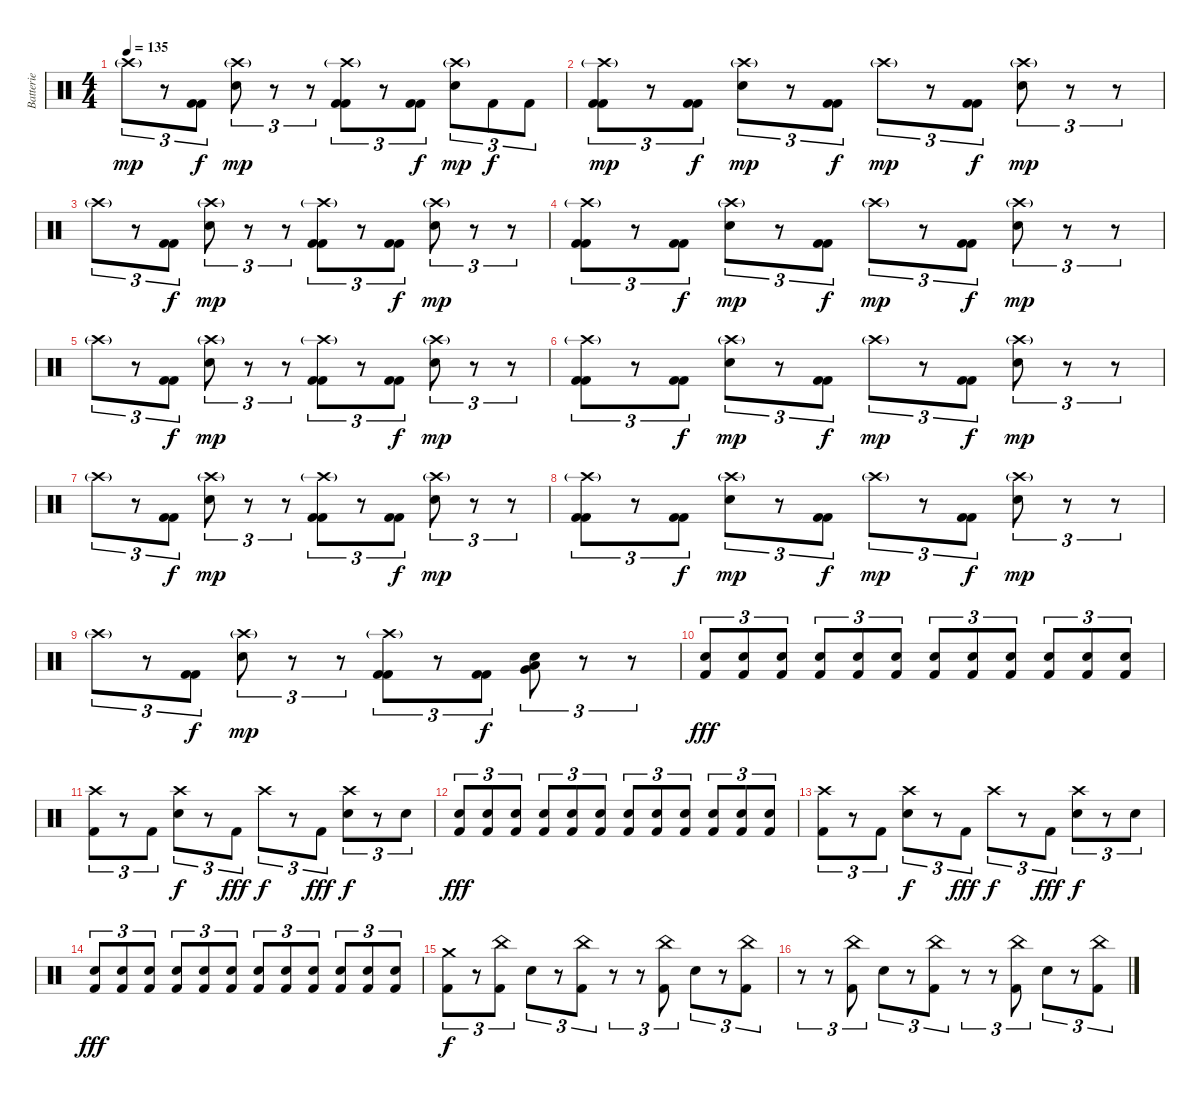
\track ("Batterie" "Batterie") {instrument percussion}
\staff {score}
\articulation defaults
\ts (4 4)
\tempo 135
\clef neutral
\ks c "Crash high (hit)"{g}.8{tu (3 2) dy mp}
r.8{tu (3 2)} ("Kick (hit) 2" "Kick (hit) 2").8{tu (3 2) dy f} ("Crash high (hit)"{g} "Electric Snare (hit)").8{tu (3 2) dy mp} r.8{tu (3 2)} r.8{tu (3 2)} ("Crash high (hit)"{g} "Kick (hit) 2" "Kick (hit) 2").8{tu (3 2)} r.8{tu (3 2)} ("Kick (hit) 2" "Kick (hit) 2").8{tu (3 2) dy f} ("Crash high (hit)"{g} "Electric Snare (hit)").8{tu (3 2) dy mp} "Kick (hit) 2".8{tu (3 2) dy f} "Kick (hit) 2".8{tu (3 2)} |
("Crash high (hit)"{g} "Kick (hit) 2" "Kick (hit) 2").8{tu (3 2) dy mp} r.8{tu (3 2)} ("Kick (hit) 2" "Kick (hit) 2").8{tu (3 2) dy f} ("Crash high (hit)"{g} "Electric Snare (hit)").8{tu (3 2) dy mp} r.8{tu (3 2)} ("Kick (hit) 2" "Kick (hit) 2").8{tu (3 2) dy f} "Crash high (hit)"{g}.8{tu (3 2) dy mp} r.8{tu (3 2)} ("Kick (hit) 2" "Kick (hit) 2").8{tu (3 2) dy f} ("Crash high (hit)"{g} "Electric Snare (hit)").8{tu (3 2) dy mp} r.8{tu (3 2)} r.8{tu (3 2)} |
"Crash high (hit)"{g}.8{tu (3 2)} r.8{tu (3 2)} ("Kick (hit) 2" "Kick (hit) 2").8{tu (3 2) dy f} ("Crash high (hit)"{g} "Electric Snare (hit)").8{tu (3 2) dy mp} r.8{tu (3 2)} r.8{tu (3 2)} ("Crash high (hit)"{g} "Kick (hit) 2" "Kick (hit) 2").8{tu (3 2)} r.8{tu (3 2)} ("Kick (hit) 2" "Kick (hit) 2").8{tu (3 2) dy f} ("Crash high (hit)"{g} "Electric Snare (hit)").8{tu (3 2) dy mp} r.8{tu (3 2)} r.8{tu (3 2)} |
("Crash high (hit)"{g} "Kick (hit) 2" "Kick (hit) 2").8{tu (3 2)} r.8{tu (3 2)} ("Kick (hit) 2" "Kick (hit) 2").8{tu (3 2) dy f} ("Crash high (hit)"{g} "Electric Snare (hit)").8{tu (3 2) dy mp} r.8{tu (3 2)} ("Kick (hit) 2" "Kick (hit) 2").8{tu (3 2) dy f} "Crash high (hit)"{g}.8{tu (3 2) dy mp} r.8{tu (3 2)} ("Kick (hit) 2" "Kick (hit) 2").8{tu (3 2) dy f} ("Crash high (hit)"{g} "Electric Snare (hit)").8{tu (3 2) dy mp} r.8{tu (3 2)} r.8{tu (3 2)} |
"Crash high (hit)"{g}.8{tu (3 2)} r.8{tu (3 2)} ("Kick (hit) 2" "Kick (hit) 2").8{tu (3 2) dy f} ("Crash high (hit)"{g} "Electric Snare (hit)").8{tu (3 2) dy mp} r.8{tu (3 2)} r.8{tu (3 2)} ("Crash high (hit)"{g} "Kick (hit) 2" "Kick (hit) 2").8{tu (3 2)} r.8{tu (3 2)} ("Kick (hit) 2" "Kick (hit) 2").8{tu (3 2) dy f} ("Crash high (hit)"{g} "Electric Snare (hit)").8{tu (3 2) dy mp} r.8{tu (3 2)} r.8{tu (3 2)} |
("Crash high (hit)"{g} "Kick (hit) 2" "Kick (hit) 2").8{tu (3 2)} r.8{tu (3 2)} ("Kick (hit) 2" "Kick (hit) 2").8{tu (3 2) dy f} ("Crash high (hit)"{g} "Electric Snare (hit)").8{tu (3 2) dy mp} r.8{tu (3 2)} ("Kick (hit) 2" "Kick (hit) 2").8{tu (3 2) dy f} "Crash high (hit)"{g}.8{tu (3 2) dy mp} r.8{tu (3 2)} ("Kick (hit) 2" "Kick (hit) 2").8{tu (3 2) dy f} ("Crash high (hit)"{g} "Electric Snare (hit)").8{tu (3 2) dy mp} r.8{tu (3 2)} r.8{tu (3 2)} |
"Crash high (hit)"{g}.8{tu (3 2)} r.8{tu (3 2)} ("Kick (hit) 2" "Kick (hit) 2").8{tu (3 2) dy f} ("Crash high (hit)"{g} "Electric Snare (hit)").8{tu (3 2) dy mp} r.8{tu (3 2)} r.8{tu (3 2)} ("Crash high (hit)"{g} "Kick (hit) 2" "Kick (hit) 2").8{tu (3 2)} r.8{tu (3 2)} ("Kick (hit) 2" "Kick (hit) 2").8{tu (3 2) dy f} ("Crash high (hit)"{g} "Electric Snare (hit)").8{tu (3 2) dy mp} r.8{tu (3 2)} r.8{tu (3 2)} |
("Crash high (hit)"{g} "Kick (hit) 2" "Kick (hit) 2").8{tu (3 2)} r.8{tu (3 2)} ("Kick (hit) 2" "Kick (hit) 2").8{tu (3 2) dy f} ("Crash high (hit)"{g} "Electric Snare (hit)").8{tu (3 2) dy mp} r.8{tu (3 2)} ("Kick (hit) 2" "Kick (hit) 2").8{tu (3 2) dy f} "Crash high (hit)"{g}.8{tu (3 2) dy mp} r.8{tu (3 2)} ("Kick (hit) 2" "Kick (hit) 2").8{tu (3 2) dy f} ("Crash high (hit)"{g} "Electric Snare (hit)").8{tu (3 2) dy mp} r.8{tu (3 2)} r.8{tu (3 2)} |
"Crash high (hit)"{g}.8{tu (3 2)} r.8{tu (3 2)} ("Kick (hit) 2" "Kick (hit) 2").8{tu (3 2) dy f} ("Crash high (hit)"{g} "Electric Snare (hit)").8{tu (3 2) dy mp} r.8{tu (3 2)} r.8{tu (3 2)} ("Crash high (hit)"{g} "Kick (hit) 2" "Kick (hit) 2").8{tu (3 2)} r.8{tu (3 2)} ("Kick (hit) 2" "Kick (hit) 2").8{tu (3 2) dy f} ("Electric Snare (hit)" "Very Low Tom (hit)" "Low Floor Tom (hit)").8{tu (3 2)} r.8{tu (3 2)} r.8{tu (3 2)} |
("Electric Snare (hit)" "Kick (hit) 2").8{tu (3 2) dy fff} ("Electric Snare (hit)" "Kick (hit) 2").8{tu (3 2)} ("Electric Snare (hit)" "Kick (hit) 2").8{tu (3 2)} ("Electric Snare (hit)" "Kick (hit) 2").8{tu (3 2)} ("Electric Snare (hit)" "Kick (hit) 2").8{tu (3 2)} ("Electric Snare (hit)" "Kick (hit) 2").8{tu (3 2)} ("Electric Snare (hit)" "Kick (hit) 2").8{tu (3 2)} ("Electric Snare (hit)" "Kick (hit) 2").8{tu (3 2)} ("Electric Snare (hit)" "Kick (hit) 2").8{tu (3 2)} ("Electric Snare (hit)" "Kick (hit) 2").8{tu (3 2)} ("Electric Snare (hit)" "Kick (hit) 2").8{tu (3 2)} ("Electric Snare (hit)" "Kick (hit) 2").8{tu (3 2)} |
("Crash high (hit)" "Kick (hit) 2").8{tu (3 2)} r.8{tu (3 2)} "Kick (hit) 2".8{tu (3 2)} ("Crash high (hit)" "Electric Snare (hit)").8{tu (3 2) dy f} r.8{tu (3 2)} "Kick (hit) 2".8{tu (3 2) dy fff} "Crash high (hit)".8{tu (3 2) dy f} r.8{tu (3 2)} "Kick (hit) 2".8{tu (3 2) dy fff} ("Crash high (hit)" "Electric Snare (hit)").8{tu (3 2) dy f} r.8{tu (3 2)} "Electric Snare (hit)".8{tu (3 2)} |
("Electric Snare (hit)" "Kick (hit) 2").8{tu (3 2) dy fff} ("Electric Snare (hit)" "Kick (hit) 2").8{tu (3 2)} ("Electric Snare (hit)" "Kick (hit) 2").8{tu (3 2)} ("Electric Snare (hit)" "Kick (hit) 2").8{tu (3 2)} ("Electric Snare (hit)" "Kick (hit) 2").8{tu (3 2)} ("Electric Snare (hit)" "Kick (hit) 2").8{tu (3 2)} ("Electric Snare (hit)" "Kick (hit) 2").8{tu (3 2)} ("Electric Snare (hit)" "Kick (hit) 2").8{tu (3 2)} ("Electric Snare (hit)" "Kick (hit) 2").8{tu (3 2)} ("Electric Snare (hit)" "Kick (hit) 2").8{tu (3 2)} ("Electric Snare (hit)" "Kick (hit) 2").8{tu (3 2)} ("Electric Snare (hit)" "Kick (hit) 2").8{tu (3 2)} |
("Crash high (hit)" "Kick (hit) 2").8{tu (3 2)} r.8{tu (3 2)} "Kick (hit) 2".8{tu (3 2)} ("Crash high (hit)" "Electric Snare (hit)").8{tu (3 2) dy f} r.8{tu (3 2)} "Kick (hit) 2".8{tu (3 2) dy fff} "Crash high (hit)".8{tu (3 2) dy f} r.8{tu (3 2)} "Kick (hit) 2".8{tu (3 2) dy fff} ("Crash high (hit)" "Electric Snare (hit)").8{tu (3 2) dy f} r.8{tu (3 2)} "Electric Snare (hit)".8{tu (3 2)} |
("Electric Snare (hit)" "Kick (hit) 2").8{tu (3 2) dy fff} ("Electric Snare (hit)" "Kick (hit) 2").8{tu (3 2)} ("Electric Snare (hit)" "Kick (hit) 2").8{tu (3 2)} ("Electric Snare (hit)" "Kick (hit) 2").8{tu (3 2)} ("Electric Snare (hit)" "Kick (hit) 2").8{tu (3 2)} ("Electric Snare (hit)" "Kick (hit) 2").8{tu (3 2)} ("Electric Snare (hit)" "Kick (hit) 2").8{tu (3 2)} ("Electric Snare (hit)" "Kick (hit) 2").8{tu (3 2)} ("Electric Snare (hit)" "Kick (hit) 2").8{tu (3 2)} ("Electric Snare (hit)" "Kick (hit) 2").8{tu (3 2)} ("Electric Snare (hit)" "Kick (hit) 2").8{tu (3 2)} ("Electric Snare (hit)" "Kick (hit) 2").8{tu (3 2)} |
("Crash medium (hit)" "Kick (hit) 2").8{tu (3 2) dy f} r.8{tu (3 2)} ("China (hit)" "Kick (hit) 2").8{tu (3 2)} "Electric Snare (hit)".8{tu (3 2)} r.8{tu (3 2)} ("China (hit)" "Kick (hit) 2").8{tu (3 2)} r.8{tu (3 2)} r.8{tu (3 2)} ("China (hit)" "Kick (hit) 2").8{tu (3 2)} "Electric Snare (hit)".8{tu (3 2)} r.8{tu (3 2)} ("China (hit)" "Kick (hit) 2").8{tu (3 2)} |
r.8{tu (3 2)} r.8{tu (3 2)} ("China (hit)" "Kick (hit) 2").8{tu (3 2)} "Electric Snare (hit)".8{tu (3 2)} r.8{tu (3 2)} ("China (hit)" "Kick (hit) 2").8{tu (3 2)} r.8{tu (3 2)} r.8{tu (3 2)} ("China (hit)" "Kick (hit) 2").8{tu (3 2)} "Electric Snare (hit)".8{tu (3 2)} r.8{tu (3 2)} ("China (hit)" "Kick (hit) 2").8{tu (3 2)}
